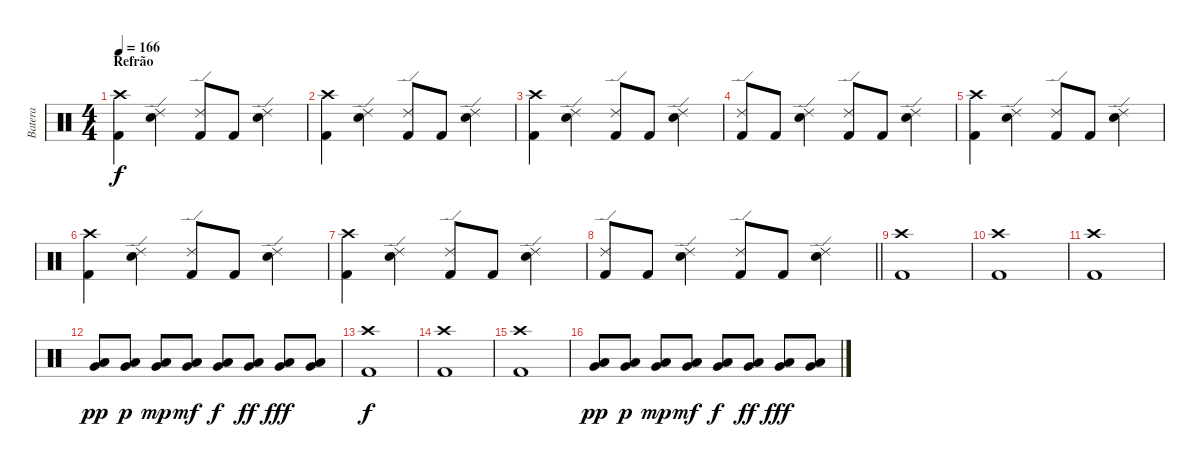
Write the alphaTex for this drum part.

\track ("Batera" "Batera") {instrument percussion}
\staff {score}
\articulation defaults
\ts (4 4)
\section ("" "Refrão")
\tempo 166
\clef neutral
\ks c
("Crash high (hit)" "Kick (hit) 2").4{dy f} ("Ride (edge) 2" "Snare (hit) 2").4 ("Ride (edge) 2" "Kick (hit) 2").8 "Kick (hit) 2".8 ("Ride (edge) 2" "Snare (hit) 2").4 |
("Crash high (hit)" "Kick (hit) 2").4 ("Ride (edge) 2" "Snare (hit) 2").4 ("Ride (edge) 2" "Kick (hit) 2").8 "Kick (hit) 2".8 ("Ride (edge) 2" "Snare (hit) 2").4 |
("Crash high (hit)" "Kick (hit) 2").4 ("Ride (edge) 2" "Snare (hit) 2").4 ("Ride (edge) 2" "Kick (hit) 2").8 "Kick (hit) 2".8 ("Ride (edge) 2" "Snare (hit) 2").4 |
("Ride (edge) 2" "Kick (hit) 2").8 "Kick (hit) 2".8 ("Ride (edge) 2" "Snare (hit) 2").4 ("Ride (edge) 2" "Kick (hit) 2").8 "Kick (hit) 2".8 ("Ride (edge) 2" "Snare (hit) 2").4 |
("Crash high (hit)" "Kick (hit) 2").4 ("Ride (edge) 2" "Snare (hit) 2").4 ("Ride (edge) 2" "Kick (hit) 2").8 "Kick (hit) 2".8 ("Ride (edge) 2" "Snare (hit) 2").4 |
("Crash high (hit)" "Kick (hit) 2").4 ("Ride (edge) 2" "Snare (hit) 2").4 ("Ride (edge) 2" "Kick (hit) 2").8 "Kick (hit) 2".8 ("Ride (edge) 2" "Snare (hit) 2").4 |
("Crash high (hit)" "Kick (hit) 2").4 ("Ride (edge) 2" "Snare (hit) 2").4 ("Ride (edge) 2" "Kick (hit) 2").8 "Kick (hit) 2".8 ("Ride (edge) 2" "Snare (hit) 2").4 |
\barLineRight lightlight
("Ride (edge) 2" "Kick (hit) 2").8 "Kick (hit) 2".8 ("Ride (edge) 2" "Snare (hit) 2").4 ("Ride (edge) 2" "Kick (hit) 2").8 "Kick (hit) 2".8 ("Ride (edge) 2" "Snare (hit) 2").4 |
("Crash high (hit)" "Kick (hit) 2").1 |
("Crash high (hit)" "Kick (hit) 2").1 |
("Crash high (hit)" "Kick (hit) 2").1 |
("Very Low Tom (hit)" "Low Tom (hit)").8{dy pp} ("Very Low Tom (hit)" "Low Tom (hit)").8{dy p} ("Very Low Tom (hit)" "Low Tom (hit)").8{dy mp} ("Very Low Tom (hit)" "Low Tom (hit)").8{dy mf} ("Very Low Tom (hit)" "Low Tom (hit)").8{dy f} ("Very Low Tom (hit)" "Low Tom (hit)").8{dy ff} ("Very Low Tom (hit)" "Low Tom (hit)").8{dy fff} ("Very Low Tom (hit)" "Low Tom (hit)").8 |
("Crash high (hit)" "Kick (hit) 2").1{dy f} |
("Crash high (hit)" "Kick (hit) 2").1 |
("Crash high (hit)" "Kick (hit) 2").1 |
("Very Low Tom (hit)" "Low Tom (hit)").8{dy pp} ("Very Low Tom (hit)" "Low Tom (hit)").8{dy p} ("Very Low Tom (hit)" "Low Tom (hit)").8{dy mp} ("Very Low Tom (hit)" "Low Tom (hit)").8{dy mf} ("Very Low Tom (hit)" "Low Tom (hit)").8{dy f} ("Very Low Tom (hit)" "Low Tom (hit)").8{dy ff} ("Very Low Tom (hit)" "Low Tom (hit)").8{dy fff} ("Very Low Tom (hit)" "Low Tom (hit)").8
